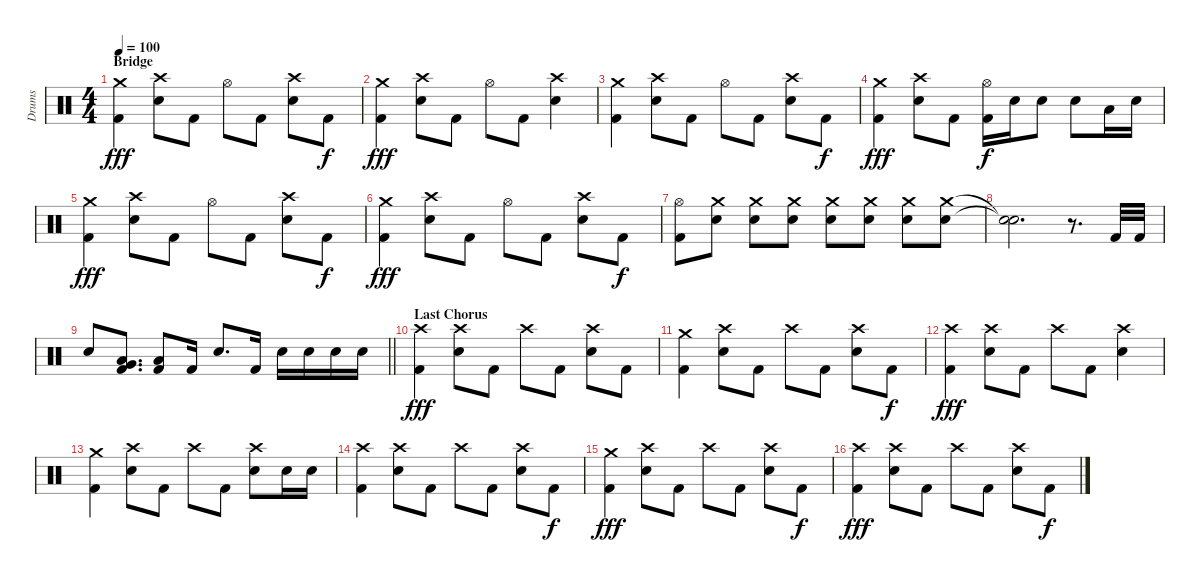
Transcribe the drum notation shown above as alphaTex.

\track ("Drums" "Drums") {instrument percussion}
\staff {score}
\articulation defaults
\ts (4 4)
\section ("" "Bridge")
\tempo 100
\clef neutral
\ks c
("Crash medium (hit)" "Kick (hit) 2").4{dy fff} ("Crash high (hit)" "Snare (hit) 2").8 "Kick (hit) 2".8 "Hi-Hat (open)".8 "Kick (hit) 2".8 ("Crash high (hit)" "Snare (hit) 2").8 "Kick (hit) 2".8{dy f} |
("Crash medium (hit)" "Kick (hit) 2").4{dy fff} ("Crash high (hit)" "Snare (hit) 2").8 "Kick (hit) 2".8 "Hi-Hat (open)".8 "Kick (hit) 2".8 ("Crash high (hit)" "Snare (hit) 2").4 |
("Crash medium (hit)" "Kick (hit) 2").4 ("Crash high (hit)" "Snare (hit) 2").8 "Kick (hit) 2".8 "Hi-Hat (open)".8 "Kick (hit) 2".8 ("Crash high (hit)" "Snare (hit) 2").8 "Kick (hit) 2".8{dy f} |
("Crash medium (hit)" "Kick (hit) 2").4{dy fff} ("Crash high (hit)" "Snare (hit) 2").8 "Kick (hit) 2".8 ("Hi-Hat (open)" "Kick (hit) 2").16{dy f} "Snare (hit) 2".16 "Snare (hit) 2".8 "Snare (hit) 2".8 "Low Tom (hit)".16 "Snare (hit) 2".16 |
("Crash medium (hit)" "Kick (hit) 2").4{dy fff} ("Crash high (hit)" "Snare (hit) 2").8 "Kick (hit) 2".8 "Hi-Hat (open)".8 "Kick (hit) 2".8 ("Crash high (hit)" "Snare (hit) 2").8 "Kick (hit) 2".8{dy f} |
("Crash medium (hit)" "Kick (hit) 2").4{dy fff} ("Crash high (hit)" "Snare (hit) 2").8 "Kick (hit) 2".8 "Hi-Hat (open)".8 "Kick (hit) 2".8 ("Crash high (hit)" "Snare (hit) 2").8 "Kick (hit) 2".8{dy f} |
("Hi-Hat (open)" "Kick (hit) 2").8 ("Crash medium (hit)" "Snare (hit) 2").8 ("Crash medium (hit)" "Snare (hit) 2").8 ("Crash medium (hit)" "Snare (hit) 2").8 ("Crash medium (hit)" "Snare (hit) 2").8 ("Crash medium (hit)" "Snare (hit) 2").8 ("Crash medium (hit)" "Snare (hit) 2").8 ("Crash medium (hit)" "Snare (hit) 2").8 |
("Snare (hit)"{t} "Snare (hit)"{t}).2{d} r.8{d} "Kick (hit) 2".32 "Kick (hit) 2".32 |
\barLineRight lightlight "Snare (hit) 2".8
("Low Tom (hit)" "Very Low Tom (hit)" "Kick (hit) 2").8{d} ("Low Floor Tom (hit)" "Kick (hit) 2").8 "Kick (hit) 2".16 "Snare (hit) 2".8{d} "Kick (hit) 2".16 "Snare (hit) 2".16 "Snare (hit) 2".16 "Snare (hit) 2".16 "Snare (hit) 2".16 |
\section ("" "Last Chorus")
("Crash high (hit)" "Kick (hit) 2").4{dy fff} ("Crash high (hit)" "Snare (hit) 2").8 "Kick (hit) 2".8 "Crash high (hit)".8 "Kick (hit) 2".8 ("Crash high (hit)" "Snare (hit) 2").8 "Kick (hit) 2".8 |
("Crash medium (hit)" "Kick (hit) 2").4 ("Crash high (hit)" "Snare (hit) 2").8 "Kick (hit) 2".8 "Crash high (hit)".8 "Kick (hit) 2".8 ("Crash high (hit)" "Snare (hit) 2").8 "Kick (hit) 2".8{dy f} |
("Crash high (hit)" "Kick (hit) 2").4{dy fff} ("Crash high (hit)" "Snare (hit) 2").8 "Kick (hit) 2".8 "Crash high (hit)".8 "Kick (hit) 2".8 ("Crash high (hit)" "Snare (hit) 2").4 |
("Crash medium (hit)" "Kick (hit) 2").4 ("Crash high (hit)" "Snare (hit) 2").8 "Kick (hit) 2".8 "Crash high (hit)".8 "Kick (hit) 2".8 ("Crash high (hit)" "Snare (hit) 2").8 "Snare (hit) 2".16 "Snare (hit) 2".16 |
("Crash high (hit)" "Kick (hit) 2").4 ("Crash high (hit)" "Snare (hit) 2").8 "Kick (hit) 2".8 "Crash high (hit)".8 "Kick (hit) 2".8 ("Crash high (hit)" "Snare (hit) 2").8 "Kick (hit) 2".8{dy f} |
("Crash medium (hit)" "Kick (hit) 2").4{dy fff} ("Crash high (hit)" "Snare (hit) 2").8 "Kick (hit) 2".8 "Crash high (hit)".8 "Kick (hit) 2".8 ("Crash high (hit)" "Snare (hit) 2").8 "Kick (hit) 2".8{dy f} |
("Crash high (hit)" "Kick (hit) 2").4{dy fff} ("Crash high (hit)" "Snare (hit) 2").8 "Kick (hit) 2".8 "Crash high (hit)".8 "Kick (hit) 2".8 ("Crash high (hit)" "Snare (hit) 2").8 "Kick (hit) 2".8{dy f}
